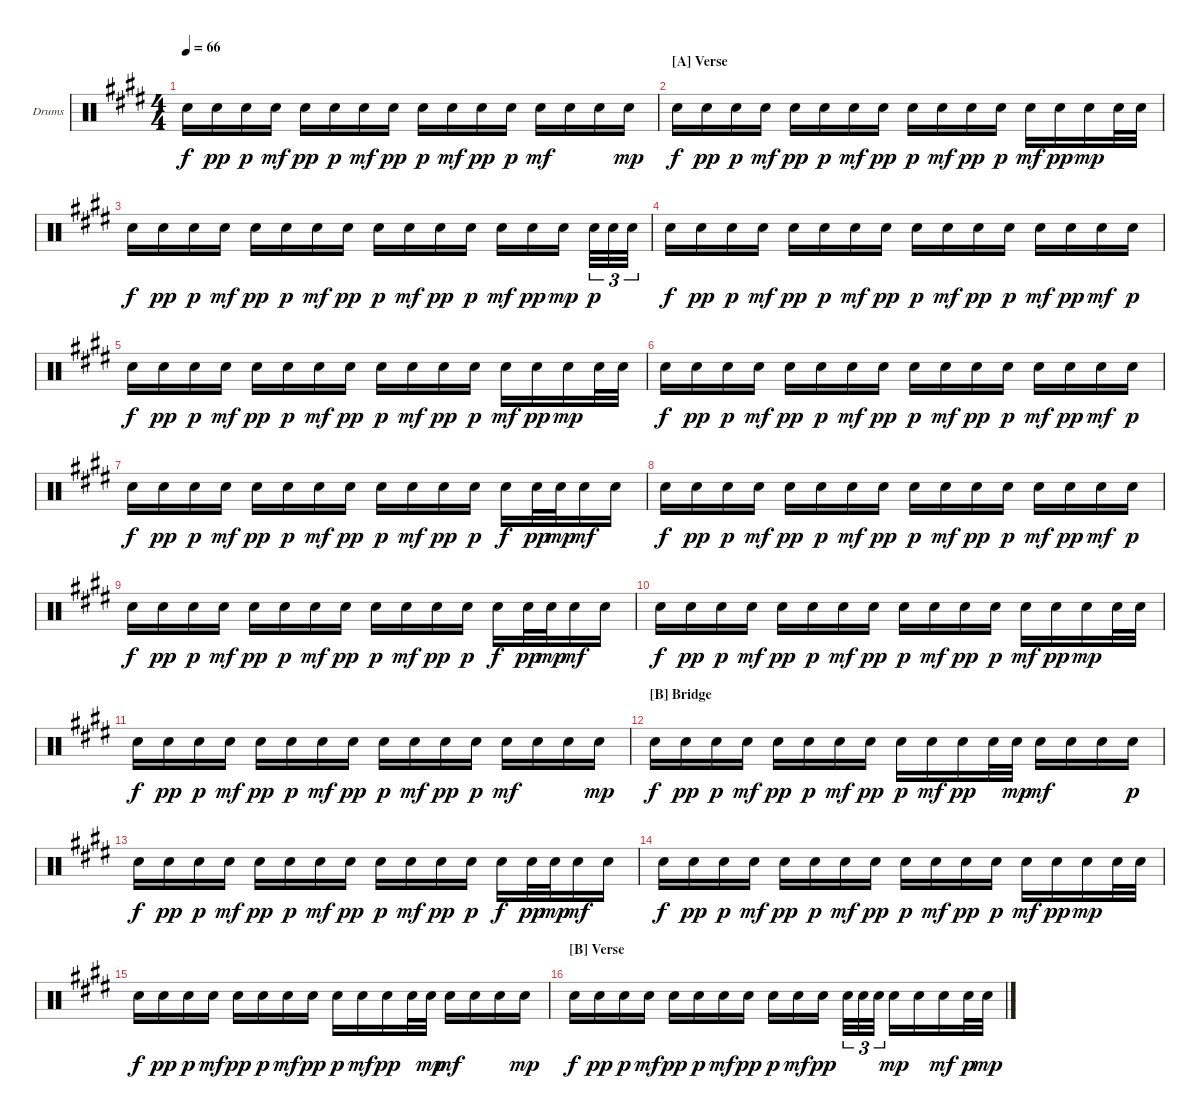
\defaultSystemsLayout 4
\bracketExtendMode groupsimilarinstruments
\firstSystemTrackNameOrientation horizontal
\otherSystemsTrackNameOrientation horizontal
\track ("Drumkit" "Drums") {instrument percussion}
\staff {score}
\articulation defaults
\ts (4 4)
\tempo 66
\clef neutral
\ks c#minor "Snare (hit) 2".16{dy f} "Snare (hit) 2".16{dy pp} "Snare (hit) 2".16{dy p} "Snare (hit) 2".16{dy mf} "Snare (hit) 2".16{dy pp} "Snare (hit) 2".16{dy p} "Snare (hit) 2".16{dy mf} "Snare (hit) 2".16{dy pp} "Snare (hit) 2".16{dy p} "Snare (hit) 2".16{dy mf} "Snare (hit) 2".16{dy pp} "Snare (hit) 2".16{dy p} "Snare (hit) 2".16{dy mf} "Snare (hit) 2".16 "Snare (hit) 2".16 "Snare (hit) 2".16{dy mp}
|
\section ("A" "Verse")
"Snare (hit) 2".16{dy f} "Snare (hit) 2".16{dy pp} "Snare (hit) 2".16{dy p} "Snare (hit) 2".16{dy mf} "Snare (hit) 2".16{dy pp} "Snare (hit) 2".16{dy p} "Snare (hit) 2".16{dy mf} "Snare (hit) 2".16{dy pp} "Snare (hit) 2".16{dy p} "Snare (hit) 2".16{dy mf} "Snare (hit) 2".16{dy pp} "Snare (hit) 2".16{dy p} "Snare (hit) 2".16{dy mf} "Snare (hit) 2".16{dy pp} "Snare (hit) 2".16{dy mp} "Snare (hit) 2".32 "Snare (hit) 2".32 |
"Snare (hit) 2".16{dy f} "Snare (hit) 2".16{dy pp} "Snare (hit) 2".16{dy p} "Snare (hit) 2".16{dy mf} "Snare (hit) 2".16{dy pp} "Snare (hit) 2".16{dy p} "Snare (hit) 2".16{dy mf} "Snare (hit) 2".16{dy pp} "Snare (hit) 2".16{dy p} "Snare (hit) 2".16{dy mf} "Snare (hit) 2".16{dy pp} "Snare (hit) 2".16{dy p} "Snare (hit) 2".16{dy mf} "Snare (hit) 2".16{dy pp} "Snare (hit) 2".16{dy mp} "Snare (hit) 2".32{tu (3 2) dy p} "Snare (hit) 2".32{tu (3 2)} "Snare (hit) 2".32{tu (3 2)} |
"Snare (hit) 2".16{dy f} "Snare (hit) 2".16{dy pp} "Snare (hit) 2".16{dy p} "Snare (hit) 2".16{dy mf} "Snare (hit) 2".16{dy pp} "Snare (hit) 2".16{dy p} "Snare (hit) 2".16{dy mf} "Snare (hit) 2".16{dy pp} "Snare (hit) 2".16{dy p} "Snare (hit) 2".16{dy mf} "Snare (hit) 2".16{dy pp} "Snare (hit) 2".16{dy p} "Snare (hit) 2".16{dy mf} "Snare (hit) 2".16{dy pp} "Snare (hit) 2".16{dy mf} "Snare (hit) 2".16{dy p} |
"Snare (hit) 2".16{dy f} "Snare (hit) 2".16{dy pp} "Snare (hit) 2".16{dy p} "Snare (hit) 2".16{dy mf} "Snare (hit) 2".16{dy pp} "Snare (hit) 2".16{dy p} "Snare (hit) 2".16{dy mf} "Snare (hit) 2".16{dy pp} "Snare (hit) 2".16{dy p} "Snare (hit) 2".16{dy mf} "Snare (hit) 2".16{dy pp} "Snare (hit) 2".16{dy p} "Snare (hit) 2".16{dy mf} "Snare (hit) 2".16{dy pp} "Snare (hit) 2".16{dy mp} "Snare (hit) 2".32 "Snare (hit) 2".32 |
"Snare (hit) 2".16{dy f} "Snare (hit) 2".16{dy pp} "Snare (hit) 2".16{dy p} "Snare (hit) 2".16{dy mf} "Snare (hit) 2".16{dy pp} "Snare (hit) 2".16{dy p} "Snare (hit) 2".16{dy mf} "Snare (hit) 2".16{dy pp} "Snare (hit) 2".16{dy p} "Snare (hit) 2".16{dy mf} "Snare (hit) 2".16{dy pp} "Snare (hit) 2".16{dy p} "Snare (hit) 2".16{dy mf} "Snare (hit) 2".16{dy pp} "Snare (hit) 2".16{dy mf} "Snare (hit) 2".16{dy p} |
"Snare (hit) 2".16{dy f} "Snare (hit) 2".16{dy pp} "Snare (hit) 2".16{dy p} "Snare (hit) 2".16{dy mf} "Snare (hit) 2".16{dy pp} "Snare (hit) 2".16{dy p} "Snare (hit) 2".16{dy mf} "Snare (hit) 2".16{dy pp} "Snare (hit) 2".16{dy p} "Snare (hit) 2".16{dy mf} "Snare (hit) 2".16{dy pp} "Snare (hit) 2".16{dy p} "Snare (hit) 2".16{dy f} "Snare (hit) 2".32{dy pp} "Snare (hit) 2".32{dy mp} "Snare (hit) 2".16{dy mf} "Snare (hit) 2".16 |
"Snare (hit) 2".16{dy f} "Snare (hit) 2".16{dy pp} "Snare (hit) 2".16{dy p} "Snare (hit) 2".16{dy mf} "Snare (hit) 2".16{dy pp} "Snare (hit) 2".16{dy p} "Snare (hit) 2".16{dy mf} "Snare (hit) 2".16{dy pp} "Snare (hit) 2".16{dy p} "Snare (hit) 2".16{dy mf} "Snare (hit) 2".16{dy pp} "Snare (hit) 2".16{dy p} "Snare (hit) 2".16{dy mf} "Snare (hit) 2".16{dy pp} "Snare (hit) 2".16{dy mf} "Snare (hit) 2".16{dy p} |
"Snare (hit) 2".16{dy f} "Snare (hit) 2".16{dy pp} "Snare (hit) 2".16{dy p} "Snare (hit) 2".16{dy mf} "Snare (hit) 2".16{dy pp} "Snare (hit) 2".16{dy p} "Snare (hit) 2".16{dy mf} "Snare (hit) 2".16{dy pp} "Snare (hit) 2".16{dy p} "Snare (hit) 2".16{dy mf} "Snare (hit) 2".16{dy pp} "Snare (hit) 2".16{dy p} "Snare (hit) 2".16{dy f} "Snare (hit) 2".32{dy pp} "Snare (hit) 2".32{dy mp} "Snare (hit) 2".16{dy mf} "Snare (hit) 2".16 |
"Snare (hit) 2".16{dy f} "Snare (hit) 2".16{dy pp} "Snare (hit) 2".16{dy p} "Snare (hit) 2".16{dy mf} "Snare (hit) 2".16{dy pp} "Snare (hit) 2".16{dy p} "Snare (hit) 2".16{dy mf} "Snare (hit) 2".16{dy pp} "Snare (hit) 2".16{dy p} "Snare (hit) 2".16{dy mf} "Snare (hit) 2".16{dy pp} "Snare (hit) 2".16{dy p} "Snare (hit) 2".16{dy mf} "Snare (hit) 2".16{dy pp} "Snare (hit) 2".16{dy mp} "Snare (hit) 2".32 "Snare (hit) 2".32 |
"Snare (hit) 2".16{dy f} "Snare (hit) 2".16{dy pp} "Snare (hit) 2".16{dy p} "Snare (hit) 2".16{dy mf} "Snare (hit) 2".16{dy pp} "Snare (hit) 2".16{dy p} "Snare (hit) 2".16{dy mf} "Snare (hit) 2".16{dy pp} "Snare (hit) 2".16{dy p} "Snare (hit) 2".16{dy mf} "Snare (hit) 2".16{dy pp} "Snare (hit) 2".16{dy p} "Snare (hit) 2".16{dy mf} "Snare (hit) 2".16 "Snare (hit) 2".16 "Snare (hit) 2".16{dy mp} |
\section ("B" "Bridge")
"Snare (hit) 2".16{dy f} "Snare (hit) 2".16{dy pp} "Snare (hit) 2".16{dy p} "Snare (hit) 2".16{dy mf} "Snare (hit) 2".16{dy pp} "Snare (hit) 2".16{dy p} "Snare (hit) 2".16{dy mf} "Snare (hit) 2".16{dy pp} "Snare (hit) 2".16{dy p} "Snare (hit) 2".16{dy mf} "Snare (hit) 2".16{dy pp} "Snare (hit) 2".32 "Snare (hit) 2".32{dy mp} "Snare (hit) 2".16{dy mf} "Snare (hit) 2".16 "Snare (hit) 2".16 "Snare (hit) 2".16{dy p} |
"Snare (hit) 2".16{dy f} "Snare (hit) 2".16{dy pp} "Snare (hit) 2".16{dy p} "Snare (hit) 2".16{dy mf} "Snare (hit) 2".16{dy pp} "Snare (hit) 2".16{dy p} "Snare (hit) 2".16{dy mf} "Snare (hit) 2".16{dy pp} "Snare (hit) 2".16{dy p} "Snare (hit) 2".16{dy mf} "Snare (hit) 2".16{dy pp} "Snare (hit) 2".16{dy p} "Snare (hit) 2".16{dy f} "Snare (hit) 2".32{dy pp} "Snare (hit) 2".32{dy mp} "Snare (hit) 2".16{dy mf} "Snare (hit) 2".16 |
"Snare (hit) 2".16{dy f} "Snare (hit) 2".16{dy pp} "Snare (hit) 2".16{dy p} "Snare (hit) 2".16{dy mf} "Snare (hit) 2".16{dy pp} "Snare (hit) 2".16{dy p} "Snare (hit) 2".16{dy mf} "Snare (hit) 2".16{dy pp} "Snare (hit) 2".16{dy p} "Snare (hit) 2".16{dy mf} "Snare (hit) 2".16{dy pp} "Snare (hit) 2".16{dy p} "Snare (hit) 2".16{dy mf} "Snare (hit) 2".16{dy pp} "Snare (hit) 2".16{dy mp} "Snare (hit) 2".32 "Snare (hit) 2".32 |
"Snare (hit) 2".16{dy f} "Snare (hit) 2".16{dy pp} "Snare (hit) 2".16{dy p} "Snare (hit) 2".16{dy mf} "Snare (hit) 2".16{dy pp} "Snare (hit) 2".16{dy p} "Snare (hit) 2".16{dy mf} "Snare (hit) 2".16{dy pp} "Snare (hit) 2".16{dy p} "Snare (hit) 2".16{dy mf} "Snare (hit) 2".16{dy pp} "Snare (hit) 2".32 "Snare (hit) 2".32{dy mp} "Snare (hit) 2".16{dy mf} "Snare (hit) 2".16 "Snare (hit) 2".16 "Snare (hit) 2".16{dy mp} |
\section ("B" "Verse")
"Snare (hit) 2".16{dy f} "Snare (hit) 2".16{dy pp} "Snare (hit) 2".16{dy p} "Snare (hit) 2".16{dy mf} "Snare (hit) 2".16{dy pp} "Snare (hit) 2".16{dy p} "Snare (hit) 2".16{dy mf} "Snare (hit) 2".16{dy pp} "Snare (hit) 2".16{dy p} "Snare (hit) 2".16{dy mf} "Snare (hit) 2".16{dy pp} "Snare (hit) 2".32{tu (3 2)} "Snare (hit) 2".32{tu (3 2)} "Snare (hit) 2".32{tu (3 2)} "Snare (hit) 2".16{dy mp} "Snare (hit) 2".16 "Snare (hit) 2".16{dy mf} "Snare (hit) 2".32{dy p} "Snare (hit) 2".32{dy mp}
